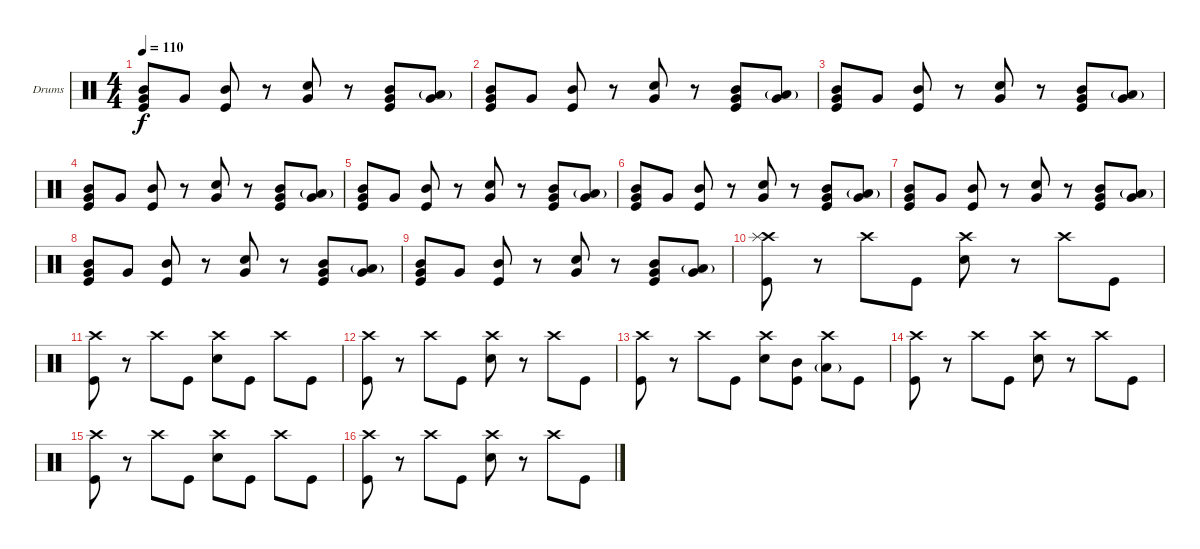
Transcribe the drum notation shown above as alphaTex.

\defaultSystemsLayout 4
\bracketExtendMode groupsimilarinstruments
\firstSystemTrackNameOrientation horizontal
\otherSystemsTrackNameOrientation horizontal
\track ("Drumkit" "Drums") {instrument percussion}
\staff {score}
\articulation defaults
\ts (4 4)
\tempo 110
\clef neutral
\scale
0.333333
\ks c
("Mid Tom (hit)" "Very Low Tom (hit)" "Kick (hit)").8{dy f} "Very Low Tom (hit)".8 ("Mid Tom (hit)" "Kick (hit)").8 r.8 ("Very Low Tom (hit)" "Snare (hit) 2").8 r.8 ("Mid Tom (hit)" "Very Low Tom (hit)" "Kick (hit)").8 ("Low Tom (hit)"{g} "Very Low Tom (hit)").8 |
\scale
0.333333 ("Mid Tom (hit)" "Very Low Tom (hit)" "Kick (hit)").8 "Very Low Tom (hit)".8 ("Mid Tom (hit)" "Kick (hit)").8 r.8 ("Very Low Tom (hit)" "Snare (hit) 2").8 r.8 ("Mid Tom (hit)" "Very Low Tom (hit)" "Kick (hit)").8 ("Low Tom (hit)"{g} "Very Low Tom (hit)").8 |
\scale
0.333333 ("Mid Tom (hit)" "Very Low Tom (hit)" "Kick (hit)").8 "Very Low Tom (hit)".8 ("Mid Tom (hit)" "Kick (hit)").8 r.8 ("Very Low Tom (hit)" "Snare (hit) 2").8 r.8 ("Mid Tom (hit)" "Very Low Tom (hit)" "Kick (hit)").8 ("Low Tom (hit)"{g} "Very Low Tom (hit)").8 |
\scale
0.333333 ("Mid Tom (hit)" "Very Low Tom (hit)" "Kick (hit)").8 "Very Low Tom (hit)".8 ("Mid Tom (hit)" "Kick (hit)").8 r.8 ("Very Low Tom (hit)" "Snare (hit) 2").8 r.8 ("Mid Tom (hit)" "Very Low Tom (hit)" "Kick (hit)").8 ("Low Tom (hit)"{g} "Very Low Tom (hit)").8 |
\scale
0.333333 ("Mid Tom (hit)" "Very Low Tom (hit)" "Kick (hit)").8 "Very Low Tom (hit)".8 ("Mid Tom (hit)" "Kick (hit)").8 r.8 ("Very Low Tom (hit)" "Snare (hit) 2").8 r.8 ("Mid Tom (hit)" "Very Low Tom (hit)" "Kick (hit)").8 ("Low Tom (hit)"{g} "Very Low Tom (hit)").8 |
\scale
0.333333 ("Mid Tom (hit)" "Very Low Tom (hit)" "Kick (hit)").8 "Very Low Tom (hit)".8 ("Mid Tom (hit)" "Kick (hit)").8 r.8 ("Very Low Tom (hit)" "Snare (hit) 2").8 r.8 ("Mid Tom (hit)" "Very Low Tom (hit)" "Kick (hit)").8 ("Low Tom (hit)"{g} "Very Low Tom (hit)").8 |
\scale
0.333333 ("Mid Tom (hit)" "Very Low Tom (hit)" "Kick (hit)").8 "Very Low Tom (hit)".8 ("Mid Tom (hit)" "Kick (hit)").8 r.8 ("Very Low Tom (hit)" "Snare (hit) 2").8 r.8 ("Mid Tom (hit)" "Very Low Tom (hit)" "Kick (hit)").8 ("Low Tom (hit)"{g} "Very Low Tom (hit)").8 |
\scale
0.333333 ("Mid Tom (hit)" "Very Low Tom (hit)" "Kick (hit)").8 "Very Low Tom (hit)".8 ("Mid Tom (hit)" "Kick (hit)").8 r.8 ("Very Low Tom (hit)" "Snare (hit) 2").8 r.8 ("Mid Tom (hit)" "Very Low Tom (hit)" "Kick (hit)").8 ("Low Tom (hit)"{g} "Very Low Tom (hit)").8 |
\scale
0.333333 ("Mid Tom (hit)" "Very Low Tom (hit)" "Kick (hit)").8 "Very Low Tom (hit)".8 ("Mid Tom (hit)" "Kick (hit)").8 r.8 ("Very Low Tom (hit)" "Snare (hit) 2").8 r.8 ("Mid Tom (hit)" "Very Low Tom (hit)" "Kick (hit)").8 ("Low Tom (hit)"{g} "Very Low Tom (hit)").8 |
\scale
0.333333 ("Crash high (hit)" "Splash (hit)" "Kick (hit)").8 r.8 "Crash high (hit)".8 "Kick (hit)".8 ("Crash high (hit)" "Snare (hit) 2").8 r.8 "Crash high (hit)".8 "Kick (hit)".8 |
\scale
0.333333 ("Crash high (hit)" "Kick (hit)").8 r.8 "Crash high (hit)".8 "Kick (hit)".8 ("Crash high (hit)" "Snare (hit) 2").8 "Kick (hit)".8 "Crash high (hit)".8 "Kick (hit)".8 |
\scale
0.333333 ("Crash high (hit)" "Kick (hit)").8 r.8 "Crash high (hit)".8 "Kick (hit)".8 ("Crash high (hit)" "Snare (hit) 2").8 r.8 "Crash high (hit)".8 "Kick (hit)".8 |
\scale
0.333333 ("Crash high (hit)" "Kick (hit)").8 r.8 "Crash high (hit)".8 "Kick (hit)".8 ("Crash high (hit)" "Snare (hit) 2").8 ("Mid Tom (hit)" "Kick (hit)").8 ("Crash high (hit)" "Low Tom (hit)"{g}).8 "Kick (hit)".8 |
\scale
0.333333 ("Crash high (hit)" "Kick (hit)").8 r.8 "Crash high (hit)".8 "Kick (hit)".8 ("Crash high (hit)" "Snare (hit) 2").8 r.8 "Crash high (hit)".8 "Kick (hit)".8 |
\scale
0.333333 ("Crash high (hit)" "Kick (hit)").8 r.8 "Crash high (hit)".8 "Kick (hit)".8 ("Crash high (hit)" "Snare (hit) 2").8 "Kick (hit)".8 "Crash high (hit)".8 "Kick (hit)".8 |
\scale
0.333333 ("Crash high (hit)" "Kick (hit)").8 r.8 "Crash high (hit)".8 "Kick (hit)".8 ("Crash high (hit)" "Snare (hit) 2").8 r.8 "Crash high (hit)".8 "Kick (hit)".8
